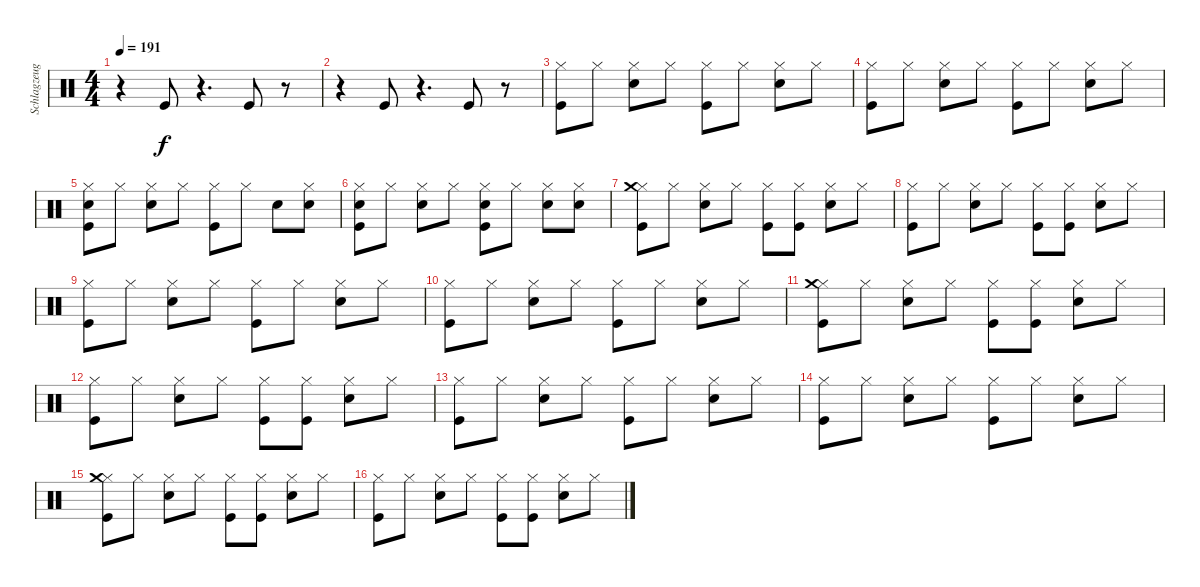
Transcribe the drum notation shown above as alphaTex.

\track ("Schlagzeug - Bela B." "Schlagzeug") {instrument percussion}
\staff {score}
\articulation defaults
\ts (4 4)
\tempo 191
\clef neutral
\ks c
r.4{dy f} "Kick (hit)".8 r.4{d} "Kick (hit)".8 r.8 |
r.4 "Kick (hit)".8 r.4{d} "Kick (hit)".8 r.8 |
("Kick (hit)" "Hi-Hat (closed)").8 "Hi-Hat (closed)".8 ("Hi-Hat (closed)" "Electric Snare (hit)").8 "Hi-Hat (closed)".8 ("Hi-Hat (closed)" "Kick (hit)").8 "Hi-Hat (closed)".8 ("Hi-Hat (closed)" "Electric Snare (hit)").8 "Hi-Hat (closed)".8 |
("Kick (hit)" "Hi-Hat (closed)").8 "Hi-Hat (closed)".8 ("Hi-Hat (closed)" "Electric Snare (hit)").8 "Hi-Hat (closed)".8 ("Hi-Hat (closed)" "Kick (hit)").8 "Hi-Hat (closed)".8 ("Hi-Hat (closed)" "Electric Snare (hit)").8 "Hi-Hat (closed)".8 |
("Kick (hit)" "Hi-Hat (closed)" "Electric Snare (hit)").8 "Hi-Hat (closed)".8 ("Hi-Hat (closed)" "Electric Snare (hit)").8 "Hi-Hat (closed)".8 ("Hi-Hat (closed)" "Kick (hit)").8 "Hi-Hat (closed)".8 "Electric Snare (hit)".8 ("Hi-Hat (closed)" "Electric Snare (hit)").8 |
("Kick (hit)" "Hi-Hat (closed)" "Electric Snare (hit)").8 "Hi-Hat (closed)".8 ("Hi-Hat (closed)" "Electric Snare (hit)").8 "Hi-Hat (closed)".8 ("Hi-Hat (closed)" "Kick (hit)" "Electric Snare (hit)").8 "Hi-Hat (closed)".8 ("Hi-Hat (closed)" "Electric Snare (hit)").8 ("Hi-Hat (closed)" "Electric Snare (hit)").8 |
("Kick (hit)" "Hi-Hat (closed)" "Crash medium (hit)").8 "Hi-Hat (closed)".8 ("Hi-Hat (closed)" "Electric Snare (hit)").8 "Hi-Hat (closed)".8 ("Hi-Hat (closed)" "Kick (hit)").8 ("Hi-Hat (closed)" "Kick (hit)").8 ("Hi-Hat (closed)" "Electric Snare (hit)").8 "Hi-Hat (closed)".8 |
("Kick (hit)" "Hi-Hat (closed)").8 "Hi-Hat (closed)".8 ("Hi-Hat (closed)" "Electric Snare (hit)").8 "Hi-Hat (closed)".8 ("Hi-Hat (closed)" "Kick (hit)").8 ("Hi-Hat (closed)" "Kick (hit)").8 ("Hi-Hat (closed)" "Electric Snare (hit)").8 "Hi-Hat (closed)".8 |
("Kick (hit)" "Hi-Hat (closed)").8 "Hi-Hat (closed)".8 ("Hi-Hat (closed)" "Electric Snare (hit)").8 "Hi-Hat (closed)".8 ("Hi-Hat (closed)" "Kick (hit)").8 "Hi-Hat (closed)".8 ("Hi-Hat (closed)" "Electric Snare (hit)").8 "Hi-Hat (closed)".8 |
("Kick (hit)" "Hi-Hat (closed)").8 "Hi-Hat (closed)".8 ("Hi-Hat (closed)" "Electric Snare (hit)").8 "Hi-Hat (closed)".8 ("Hi-Hat (closed)" "Kick (hit)").8 "Hi-Hat (closed)".8 ("Hi-Hat (closed)" "Electric Snare (hit)").8 "Hi-Hat (closed)".8 |
("Kick (hit)" "Hi-Hat (closed)" "Crash medium (hit)").8 "Hi-Hat (closed)".8 ("Hi-Hat (closed)" "Electric Snare (hit)").8 "Hi-Hat (closed)".8 ("Hi-Hat (closed)" "Kick (hit)").8 ("Hi-Hat (closed)" "Kick (hit)").8 ("Hi-Hat (closed)" "Electric Snare (hit)").8 "Hi-Hat (closed)".8 |
("Kick (hit)" "Hi-Hat (closed)").8 "Hi-Hat (closed)".8 ("Hi-Hat (closed)" "Electric Snare (hit)").8 "Hi-Hat (closed)".8 ("Hi-Hat (closed)" "Kick (hit)").8 ("Hi-Hat (closed)" "Kick (hit)").8 ("Hi-Hat (closed)" "Electric Snare (hit)").8 "Hi-Hat (closed)".8 |
("Kick (hit)" "Hi-Hat (closed)").8 "Hi-Hat (closed)".8 ("Hi-Hat (closed)" "Electric Snare (hit)").8 "Hi-Hat (closed)".8 ("Hi-Hat (closed)" "Kick (hit)").8 "Hi-Hat (closed)".8 ("Hi-Hat (closed)" "Electric Snare (hit)").8 "Hi-Hat (closed)".8 |
("Kick (hit)" "Hi-Hat (closed)").8 "Hi-Hat (closed)".8 ("Hi-Hat (closed)" "Electric Snare (hit)").8 "Hi-Hat (closed)".8 ("Hi-Hat (closed)" "Kick (hit)").8 "Hi-Hat (closed)".8 ("Hi-Hat (closed)" "Electric Snare (hit)").8 "Hi-Hat (closed)".8 |
("Kick (hit)" "Hi-Hat (closed)" "Crash medium (hit)").8 "Hi-Hat (closed)".8 ("Hi-Hat (closed)" "Electric Snare (hit)").8 "Hi-Hat (closed)".8 ("Hi-Hat (closed)" "Kick (hit)").8 ("Hi-Hat (closed)" "Kick (hit)").8 ("Hi-Hat (closed)" "Electric Snare (hit)").8 "Hi-Hat (closed)".8 |
("Kick (hit)" "Hi-Hat (closed)").8 "Hi-Hat (closed)".8 ("Hi-Hat (closed)" "Electric Snare (hit)").8 "Hi-Hat (closed)".8 ("Hi-Hat (closed)" "Kick (hit)").8 ("Hi-Hat (closed)" "Kick (hit)").8 ("Hi-Hat (closed)" "Electric Snare (hit)").8 "Hi-Hat (closed)".8
